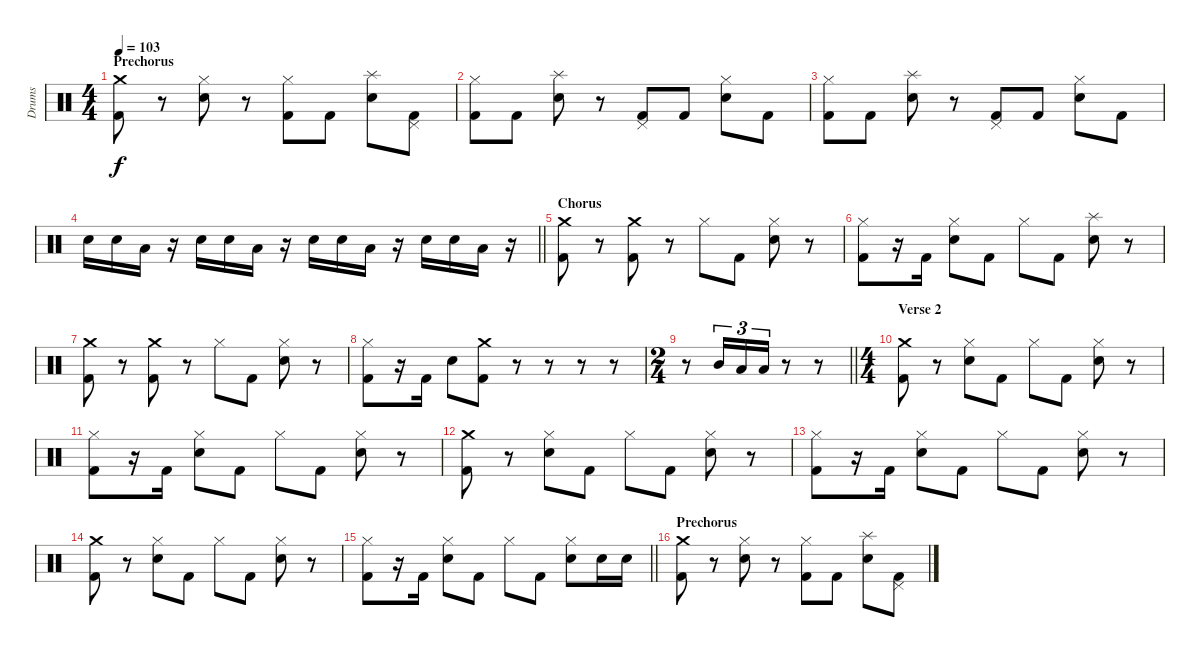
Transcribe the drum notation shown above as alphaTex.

\track ("Drums" "Drums") {instrument percussion}
\staff {score}
\articulation defaults
\ts (4 4)
\section ("" "Prechorus")
\tempo 103
\clef neutral
\ks c
("Crash medium (hit)" "Kick (hit) 2").8{dy f} r.8 ("Hi-Hat (closed)" "Snare (hit) 2").8 r.8 ("Hi-Hat (closed)" "Kick (hit) 2").8 "Kick (hit) 2".8 ("Splash (hit)" "Snare (hit) 2").8 ("Pedal Hi-Hat (hit)" "Kick (hit) 2").8 |
("Hi-Hat (closed)" "Kick (hit) 2").8 "Kick (hit) 2".8 ("Splash (hit)" "Snare (hit) 2").8 r.8 ("Pedal Hi-Hat (hit)" "Kick (hit) 2").8 "Kick (hit) 2".8 ("Hi-Hat (closed)" "Snare (hit) 2").8 "Kick (hit) 2".8 |
("Hi-Hat (closed)" "Kick (hit) 2").8 "Kick (hit) 2".8 ("Splash (hit)" "Snare (hit) 2").8 r.8 ("Pedal Hi-Hat (hit)" "Kick (hit) 2").8 "Kick (hit) 2".8 ("Hi-Hat (closed)" "Snare (hit) 2").8 "Kick (hit) 2".8 |
\barLineRight lightlight "Snare (hit) 2".16 "Snare (hit) 2".16 "Low Tom (hit)".16
r.16 "Snare (hit) 2".16 "Snare (hit) 2".16 "Low Tom (hit)".16 r.16 "Snare (hit) 2".16 "Snare (hit) 2".16 "Low Tom (hit)".16 r.16 "Snare (hit) 2".16 "Snare (hit) 2".16 "Low Tom (hit)".16 r.16 |
\section ("" "Chorus")
("Crash medium (hit)" "Kick (hit) 2").8 r.8 ("Crash medium (hit)" "Kick (hit) 2").8 r.8 "Hi-Hat (closed)".8 "Kick (hit) 2".8 ("Hi-Hat (closed)" "Snare (hit) 2").8 r.8 |
("Hi-Hat (closed)" "Kick (hit) 2").8 r.16 "Kick (hit) 2".16 ("Hi-Hat (closed)" "Snare (hit) 2").8 "Kick (hit) 2".8 "Hi-Hat (closed)".8 "Kick (hit) 2".8 ("Splash (hit)" "Snare (hit) 2").8 r.8 |
("Crash medium (hit)" "Kick (hit) 2").8 r.8 ("Crash medium (hit)" "Kick (hit) 2").8 r.8 "Hi-Hat (closed)".8 "Kick (hit) 2".8 ("Hi-Hat (closed)" "Snare (hit) 2").8 r.8 |
("Hi-Hat (closed)" "Kick (hit) 2").8 r.16 "Kick (hit) 2".16 "Snare (hit) 2".8 ("Crash medium (hit)" "Kick (hit) 2").8 r.8 r.8 r.8 r.8 |
\ts (2 4)
\barLineRight lightlight
r.8 "Mid Tom (hit)".16{tu (3 2)} "Low Tom (hit)".16{tu (3 2)} "Low Floor Tom (hit)".16{tu (3 2)} r.8 r.8 |
\ts (4 4)
\section ("" "Verse 2")
("Crash medium (hit)" "Kick (hit) 2").8 r.8 ("Hi-Hat (closed)" "Snare (hit) 2").8 "Kick (hit) 2".8 "Hi-Hat (closed)".8 "Kick (hit) 2".8 ("Hi-Hat (closed)" "Snare (hit) 2").8 r.8 |
("Hi-Hat (closed)" "Kick (hit) 2").8 r.16 "Kick (hit) 2".16 ("Hi-Hat (closed)" "Snare (hit) 2").8 "Kick (hit) 2".8 "Hi-Hat (closed)".8 "Kick (hit) 2".8 ("Hi-Hat (closed)" "Snare (hit) 2").8 r.8 |
("Crash medium (hit)" "Kick (hit) 2").8 r.8 ("Hi-Hat (closed)" "Snare (hit) 2").8 "Kick (hit) 2".8 "Hi-Hat (closed)".8 "Kick (hit) 2".8 ("Hi-Hat (closed)" "Snare (hit) 2").8 r.8 |
("Hi-Hat (closed)" "Kick (hit) 2").8 r.16 "Kick (hit) 2".16 ("Hi-Hat (closed)" "Snare (hit) 2").8 "Kick (hit) 2".8 "Hi-Hat (closed)".8 "Kick (hit) 2".8 ("Hi-Hat (closed)" "Snare (hit) 2").8 r.8 |
("Crash medium (hit)" "Kick (hit) 2").8 r.8 ("Hi-Hat (closed)" "Snare (hit) 2").8 "Kick (hit) 2".8 "Hi-Hat (closed)".8 "Kick (hit) 2".8 ("Hi-Hat (closed)" "Snare (hit) 2").8 r.8 |
\barLineRight lightlight
("Hi-Hat (closed)" "Kick (hit) 2").8 r.16 "Kick (hit) 2".16 ("Hi-Hat (closed)" "Snare (hit) 2").8 "Kick (hit) 2".8 "Hi-Hat (closed)".8 "Kick (hit) 2".8 ("Hi-Hat (closed)" "Snare (hit) 2").8 "Snare (hit) 2".16 "Snare (hit) 2".16 |
\section ("" "Prechorus")
("Crash medium (hit)" "Kick (hit) 2").8 r.8 ("Hi-Hat (closed)" "Snare (hit) 2").8 r.8 ("Hi-Hat (closed)" "Kick (hit) 2").8 "Kick (hit) 2".8 ("Splash (hit)" "Snare (hit) 2").8 ("Pedal Hi-Hat (hit)" "Kick (hit) 2").8
